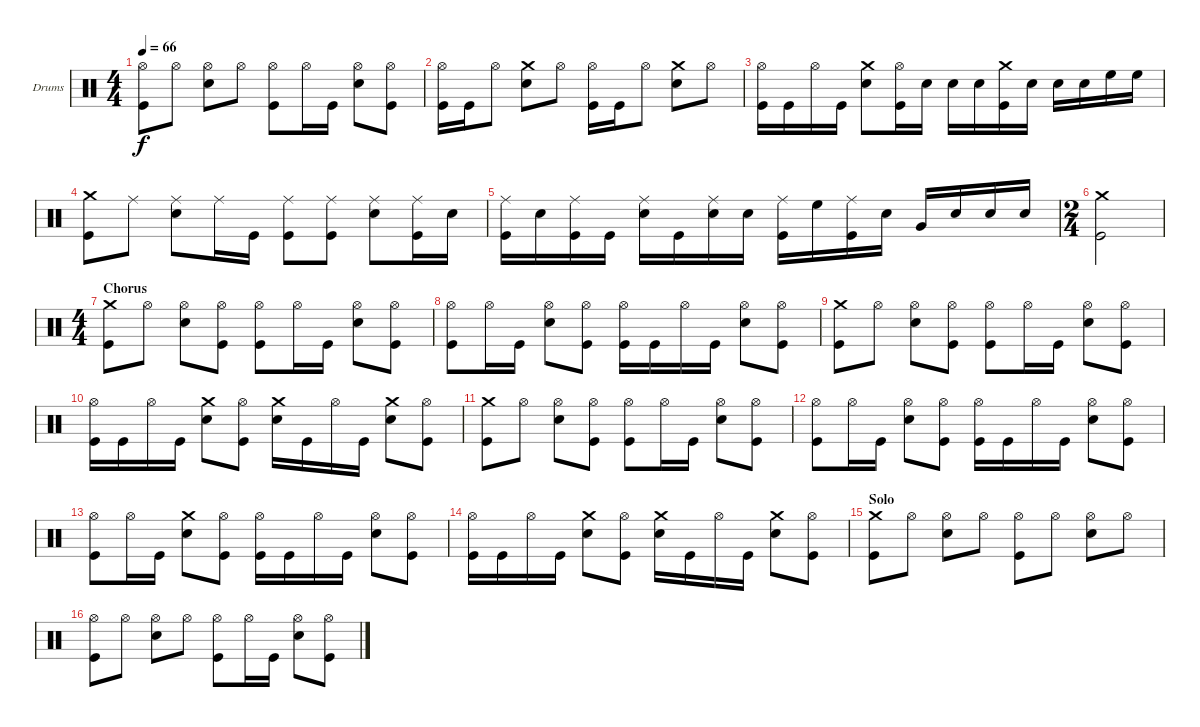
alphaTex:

\bracketExtendMode groupsimilarinstruments
\firstSystemTrackNameOrientation horizontal
\otherSystemsTrackNameOrientation horizontal
\track ("Drumkit" "Drums") {instrument percussion}
\staff {score}
\articulation defaults
\ts (4 4)
\tempo 66
\clef neutral
\ks c
("Hi-Hat (open)" "Kick (hit)").8{dy f} "Hi-Hat (open)".8 ("Hi-Hat (open)" "Snare (hit) 2").8 "Hi-Hat (open)".8 ("Hi-Hat (open)" "Kick (hit)").8 "Hi-Hat (open)".16 "Kick (hit)".16 ("Hi-Hat (open)" "Snare (hit) 2").8 ("Hi-Hat (open)" "Kick (hit)").8 |
("Hi-Hat (open)" "Kick (hit)").16 "Kick (hit)".16 "Hi-Hat (open)".8 ("Crash medium (hit)" "Snare (hit) 2").8 "Hi-Hat (open)".8 ("Hi-Hat (open)" "Kick (hit)").16 "Kick (hit)".16 "Hi-Hat (open)".8 ("Crash medium (hit)" "Snare (hit) 2").8 "Hi-Hat (open)".8 |
("Hi-Hat (open)" "Kick (hit)").16 "Kick (hit)".16 "Hi-Hat (open)".16 "Kick (hit)".16 ("Crash medium (hit)" "Snare (hit) 2").8 ("Hi-Hat (open)" "Kick (hit)").16 "Snare (hit) 2".16 "Snare (hit) 2".16 "Snare (hit) 2".16 ("Crash medium (hit)" "Kick (hit)").16 "Snare (hit) 2".16 "Snare (hit) 2".16 "Snare (hit) 2".16 "High Floor Tom (hit)".16 "High Floor Tom (hit)".16 |
("Crash medium (hit)" "Kick (hit)").8 "Ride (middle)".8 ("Ride (middle)" "Snare (hit) 2").8 "Ride (middle)".16 "Kick (hit)".16 ("Ride (middle)" "Kick (hit)").8 ("Ride (middle)" "Kick (hit)").8 ("Ride (middle)" "Snare (hit) 2").8 ("Ride (middle)" "Kick (hit)").16 "Snare (hit) 2".16 |
("Ride (middle)" "Kick (hit)").16 "Snare (hit) 2".16 ("Ride (middle)" "Kick (hit)").16 "Kick (hit)".16 ("Ride (middle)" "Snare (hit) 2").16 "Kick (hit)".16 ("Ride (middle)" "Snare (hit) 2").16 "Snare (hit) 2".16 ("Ride (middle)" "Kick (hit)").16 "High Floor Tom (hit)".16 ("Ride (middle)" "Kick (hit)").16 "Snare (hit) 2".16 "Very Low Tom (hit)".16 "Snare (hit) 2".16 "Snare (hit) 2".16 "Snare (hit) 2".16 |
\ts (2 4)
("Crash medium (hit)" "Kick (hit)").2 |
\ts (4 4)
\section ("" "Chorus")
("Crash medium (hit)" "Kick (hit)").8 "Hi-Hat (open)".8 ("Hi-Hat (open)" "Snare (hit) 2").8 ("Hi-Hat (open)" "Kick (hit)").8 ("Hi-Hat (open)" "Kick (hit)").8 "Hi-Hat (open)".16 "Kick (hit)".16 ("Hi-Hat (open)" "Snare (hit) 2").8 ("Hi-Hat (open)" "Kick (hit)").8 |
("Hi-Hat (open)" "Kick (hit)").8 "Hi-Hat (open)".16 "Kick (hit)".16 ("Hi-Hat (open)" "Snare (hit) 2").8 ("Hi-Hat (open)" "Kick (hit)").8 ("Hi-Hat (open)" "Kick (hit)").16 "Kick (hit)".16 "Hi-Hat (open)".16 "Kick (hit)".16 ("Hi-Hat (open)" "Snare (hit) 2").8 ("Hi-Hat (open)" "Kick (hit)").8 |
("Crash medium (hit)" "Kick (hit)").8 "Hi-Hat (open)".8 ("Hi-Hat (open)" "Snare (hit) 2").8 ("Hi-Hat (open)" "Kick (hit)").8 ("Hi-Hat (open)" "Kick (hit)").8 "Hi-Hat (open)".16 "Kick (hit)".16 ("Hi-Hat (open)" "Snare (hit) 2").8 ("Hi-Hat (open)" "Kick (hit)").8 |
("Hi-Hat (open)" "Kick (hit)").16 "Kick (hit)".16 "Hi-Hat (open)".16 "Kick (hit)".16 ("Crash medium (hit)" "Snare (hit) 2").8 ("Hi-Hat (open)" "Kick (hit)").8 ("Crash medium (hit)" "Snare (hit) 2").16 "Kick (hit)".16 "Hi-Hat (open)".16 "Kick (hit)".16 ("Crash medium (hit)" "Snare (hit) 2").8 ("Hi-Hat (open)" "Kick (hit)").8 |
("Crash medium (hit)" "Kick (hit)").8 "Hi-Hat (open)".8 ("Hi-Hat (open)" "Snare (hit) 2").8 ("Hi-Hat (open)" "Kick (hit)").8 ("Hi-Hat (open)" "Kick (hit)").8 "Hi-Hat (open)".16 "Kick (hit)".16 ("Hi-Hat (open)" "Snare (hit) 2").8 ("Hi-Hat (open)" "Kick (hit)").8 |
("Hi-Hat (open)" "Kick (hit)").8 "Hi-Hat (open)".16 "Kick (hit)".16 ("Hi-Hat (open)" "Snare (hit) 2").8 ("Hi-Hat (open)" "Kick (hit)").8 ("Hi-Hat (open)" "Kick (hit)").16 "Kick (hit)".16 "Hi-Hat (open)".16 "Kick (hit)".16 ("Hi-Hat (open)" "Snare (hit) 2").8 ("Hi-Hat (open)" "Kick (hit)").8 |
("Hi-Hat (open)" "Kick (hit)").8 "Hi-Hat (open)".16 "Kick (hit)".16 ("Crash medium (hit)" "Snare (hit) 2").8 ("Hi-Hat (open)" "Kick (hit)").8 ("Hi-Hat (open)" "Kick (hit)").16 "Kick (hit)".16 "Hi-Hat (open)".16 "Kick (hit)".16 ("Hi-Hat (open)" "Snare (hit) 2").8 ("Hi-Hat (open)" "Kick (hit)").8 |
("Hi-Hat (open)" "Kick (hit)").16 "Kick (hit)".16 "Hi-Hat (open)".16 "Kick (hit)".16 ("Crash medium (hit)" "Snare (hit) 2").8 ("Hi-Hat (open)" "Kick (hit)").8 ("Crash medium (hit)" "Snare (hit) 2").16 "Kick (hit)".16 "Hi-Hat (open)".16 "Kick (hit)".16 ("Crash medium (hit)" "Snare (hit) 2").8 ("Hi-Hat (open)" "Kick (hit)").8 |
\section ("" "Solo")
("Crash medium (hit)" "Kick (hit)").8 "Hi-Hat (open)".8 ("Hi-Hat (open)" "Snare (hit) 2").8 "Hi-Hat (open)".8 ("Hi-Hat (open)" "Kick (hit)").8 "Hi-Hat (open)".8 ("Hi-Hat (open)" "Snare (hit) 2").8 "Hi-Hat (open)".8 |
("Hi-Hat (open)" "Kick (hit)").8 "Hi-Hat (open)".8 ("Hi-Hat (open)" "Snare (hit) 2").8 "Hi-Hat (open)".8 ("Hi-Hat (open)" "Kick (hit)").8 "Hi-Hat (open)".16 "Kick (hit)".16 ("Hi-Hat (open)" "Snare (hit) 2").8 ("Hi-Hat (open)" "Kick (hit)").8
